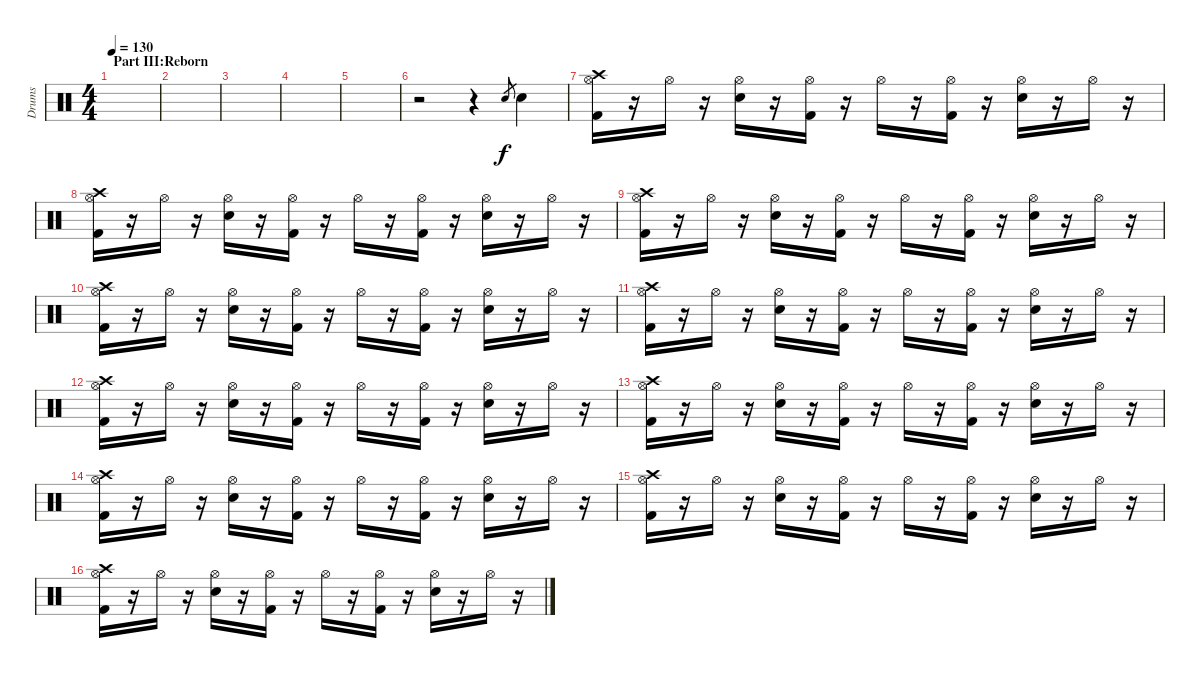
\track ("Drums" "Drums") {instrument percussion}
\staff {score}
\articulation defaults
\ts (4 4)
\section ("" "Part III:Reborn")
\tempo 130
\clef neutral
\ks c
|
|
|
|
|
r.2 r.4 "Snare (hit) 2".8{gr} "Snare (hit) 2".4 |
("Crash high (hit)" "Hi-Hat (open)" "Kick (hit) 2").16 r.16 "Hi-Hat (open)".16 r.16 ("Hi-Hat (open)" "Snare (hit) 2").16 r.16 ("Hi-Hat (open)" "Kick (hit) 2").16 r.16 "Hi-Hat (open)".16 r.16 ("Hi-Hat (open)" "Kick (hit) 2").16 r.16 ("Hi-Hat (open)" "Snare (hit) 2").16 r.16 "Hi-Hat (open)".16 r.16 |
("Crash high (hit)" "Hi-Hat (open)" "Kick (hit) 2").16 r.16 "Hi-Hat (open)".16 r.16 ("Hi-Hat (open)" "Snare (hit) 2").16 r.16 ("Hi-Hat (open)" "Kick (hit) 2").16 r.16 "Hi-Hat (open)".16 r.16 ("Hi-Hat (open)" "Kick (hit) 2").16 r.16 ("Hi-Hat (open)" "Snare (hit) 2").16 r.16 "Hi-Hat (open)".16 r.16 |
("Crash high (hit)" "Hi-Hat (open)" "Kick (hit) 2").16 r.16 "Hi-Hat (open)".16 r.16 ("Hi-Hat (open)" "Snare (hit) 2").16 r.16 ("Hi-Hat (open)" "Kick (hit) 2").16 r.16 "Hi-Hat (open)".16 r.16 ("Hi-Hat (open)" "Kick (hit) 2").16 r.16 ("Hi-Hat (open)" "Snare (hit) 2").16 r.16 "Hi-Hat (open)".16 r.16 |
("Crash high (hit)" "Hi-Hat (open)" "Kick (hit) 2").16 r.16 "Hi-Hat (open)".16 r.16 ("Hi-Hat (open)" "Snare (hit) 2").16 r.16 ("Hi-Hat (open)" "Kick (hit) 2").16 r.16 "Hi-Hat (open)".16 r.16 ("Hi-Hat (open)" "Kick (hit) 2").16 r.16 ("Hi-Hat (open)" "Snare (hit) 2").16 r.16 "Hi-Hat (open)".16 r.16 |
("Crash high (hit)" "Hi-Hat (open)" "Kick (hit) 2").16 r.16 "Hi-Hat (open)".16 r.16 ("Hi-Hat (open)" "Snare (hit) 2").16 r.16 ("Hi-Hat (open)" "Kick (hit) 2").16 r.16 "Hi-Hat (open)".16 r.16 ("Hi-Hat (open)" "Kick (hit) 2").16 r.16 ("Hi-Hat (open)" "Snare (hit) 2").16 r.16 "Hi-Hat (open)".16 r.16 |
("Crash high (hit)" "Hi-Hat (open)" "Kick (hit) 2").16 r.16 "Hi-Hat (open)".16 r.16 ("Hi-Hat (open)" "Snare (hit) 2").16 r.16 ("Hi-Hat (open)" "Kick (hit) 2").16 r.16 "Hi-Hat (open)".16 r.16 ("Hi-Hat (open)" "Kick (hit) 2").16 r.16 ("Hi-Hat (open)" "Snare (hit) 2").16 r.16 "Hi-Hat (open)".16 r.16 |
("Crash high (hit)" "Hi-Hat (open)" "Kick (hit) 2").16 r.16 "Hi-Hat (open)".16 r.16 ("Hi-Hat (open)" "Snare (hit) 2").16 r.16 ("Hi-Hat (open)" "Kick (hit) 2").16 r.16 "Hi-Hat (open)".16 r.16 ("Hi-Hat (open)" "Kick (hit) 2").16 r.16 ("Hi-Hat (open)" "Snare (hit) 2").16 r.16 "Hi-Hat (open)".16 r.16 |
("Crash high (hit)" "Hi-Hat (open)" "Kick (hit) 2").16 r.16 "Hi-Hat (open)".16 r.16 ("Hi-Hat (open)" "Snare (hit) 2").16 r.16 ("Hi-Hat (open)" "Kick (hit) 2").16 r.16 "Hi-Hat (open)".16 r.16 ("Hi-Hat (open)" "Kick (hit) 2").16 r.16 ("Hi-Hat (open)" "Snare (hit) 2").16 r.16 "Hi-Hat (open)".16 r.16 |
("Crash high (hit)" "Hi-Hat (open)" "Kick (hit) 2").16 r.16 "Hi-Hat (open)".16 r.16 ("Hi-Hat (open)" "Snare (hit) 2").16 r.16 ("Hi-Hat (open)" "Kick (hit) 2").16 r.16 "Hi-Hat (open)".16 r.16 ("Hi-Hat (open)" "Kick (hit) 2").16 r.16 ("Hi-Hat (open)" "Snare (hit) 2").16 r.16 "Hi-Hat (open)".16 r.16 |
("Crash high (hit)" "Hi-Hat (open)" "Kick (hit) 2").16 r.16 "Hi-Hat (open)".16 r.16 ("Hi-Hat (open)" "Snare (hit) 2").16 r.16 ("Hi-Hat (open)" "Kick (hit) 2").16 r.16 "Hi-Hat (open)".16 r.16 ("Hi-Hat (open)" "Kick (hit) 2").16 r.16 ("Hi-Hat (open)" "Snare (hit) 2").16 r.16 "Hi-Hat (open)".16 r.16
